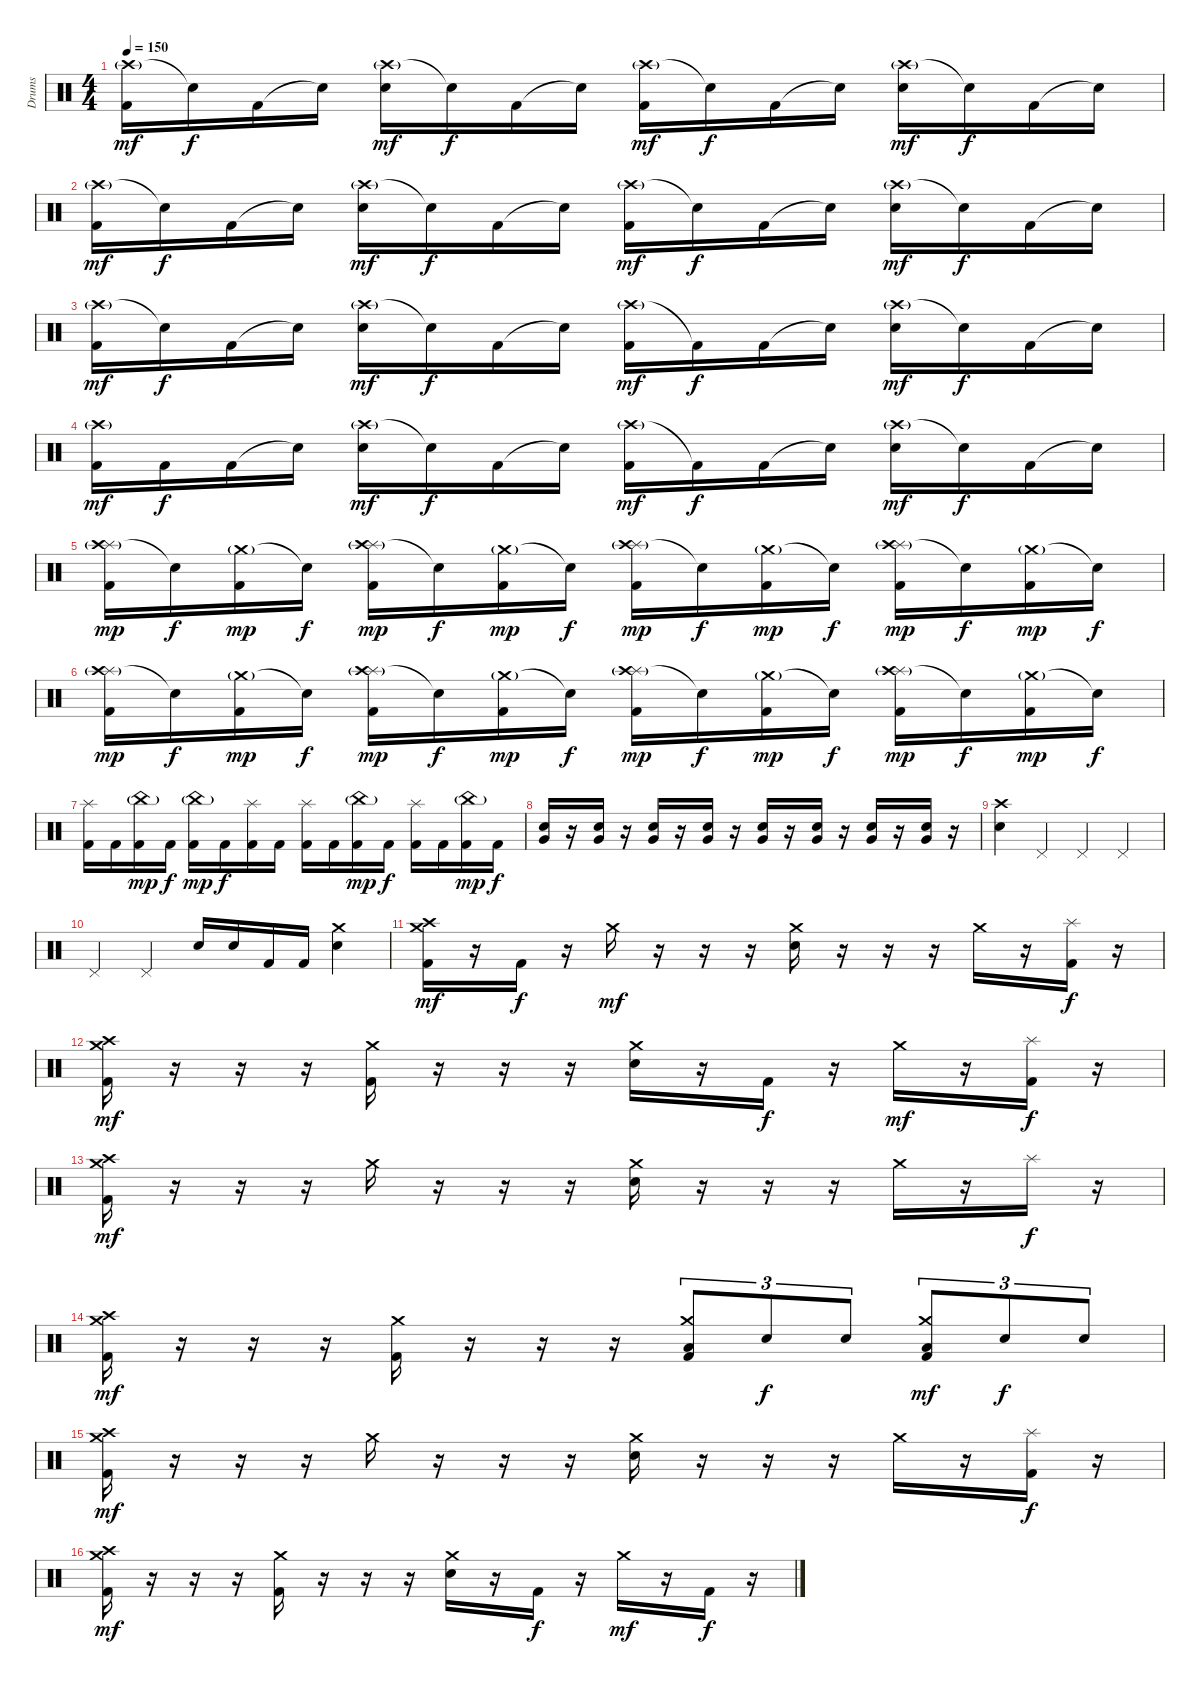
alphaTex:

\track ("Drums" "Drums") {instrument percussion}
\staff {score}
\articulation defaults
\ts (4 4)
\tempo 150
\clef neutral
\ks c
("Crash high (hit)"{g} "Kick (hit) 2").16{dy mf} "Snare (hit)"{t}.16{dy f} "Kick (hit) 2".16 "Snare (hit)"{t}.16 ("Crash high (hit)"{g} "Electric Snare (hit)").16{dy mf} "Snare (hit)"{t}.16{dy f} "Kick (hit) 2".16 "Snare (hit)"{t}.16 ("Crash high (hit)"{g} "Kick (hit) 2").16{dy mf} "Snare (hit)"{t}.16{dy f} "Kick (hit) 2".16 "Snare (hit)"{t}.16 ("Crash high (hit)"{g} "Electric Snare (hit)").16{dy mf} "Snare (hit)"{t}.16{dy f} "Kick (hit) 2".16 "Snare (hit)"{t}.16 |
("Crash high (hit)"{g} "Kick (hit) 2").16{dy mf} "Snare (hit)"{t}.16{dy f} "Kick (hit) 2".16 "Snare (hit)"{t}.16 ("Crash high (hit)"{g} "Electric Snare (hit)").16{dy mf} "Snare (hit)"{t}.16{dy f} "Kick (hit) 2".16 "Snare (hit)"{t}.16 ("Crash high (hit)"{g} "Kick (hit) 2").16{dy mf} "Snare (hit)"{t}.16{dy f} "Kick (hit) 2".16 "Snare (hit)"{t}.16 ("Crash high (hit)"{g} "Electric Snare (hit)").16{dy mf} "Snare (hit)"{t}.16{dy f} "Kick (hit) 2".16 "Snare (hit)"{t}.16 |
("Crash high (hit)"{g} "Kick (hit) 2").16{dy mf} "Snare (hit)"{t}.16{dy f} "Kick (hit) 2".16 "Snare (hit)"{t}.16 ("Crash high (hit)"{g} "Electric Snare (hit)").16{dy mf} "Snare (hit)"{t}.16{dy f} "Kick (hit) 2".16 "Snare (hit)"{t}.16 ("Crash high (hit)"{g} "Kick (hit) 2").16{dy mf} "Kick (hit) 2"{t}.16{dy f} "Kick (hit) 2".16 "Snare (hit)"{t}.16 ("Crash high (hit)"{g} "Electric Snare (hit)").16{dy mf} "Snare (hit)"{t}.16{dy f} "Kick (hit) 2".16 "Snare (hit)"{t}.16 |
("Crash high (hit)"{g} "Kick (hit) 2").16{dy mf} "Kick (hit) 2".16{dy f} "Kick (hit) 2".16 "Snare (hit)"{t}.16 ("Crash high (hit)"{g} "Electric Snare (hit)").16{dy mf} "Snare (hit)"{t}.16{dy f} "Kick (hit) 2".16 "Snare (hit)"{t}.16 ("Crash high (hit)"{g} "Kick (hit) 2").16{dy mf} "Kick (hit) 2"{t}.16{dy f} "Kick (hit) 2".16 "Snare (hit)"{t}.16 ("Crash high (hit)"{g} "Electric Snare (hit)").16{dy mf} "Snare (hit)"{t}.16{dy f} "Kick (hit) 2".16 "Snare (hit)"{t}.16 |
("Splash (hit)"{g} "Crash high (hit)"{g} "Kick (hit) 2").16{dy mp} "Snare (hit)"{t}.16{dy f} ("Crash medium (hit)"{g} "Kick (hit) 2").16{dy mp} "Snare (hit)"{t}.16{dy f} ("Splash (hit)"{g} "Crash high (hit)"{g} "Kick (hit) 2").16{dy mp} "Snare (hit)"{t}.16{dy f} ("Crash medium (hit)"{g} "Kick (hit) 2").16{dy mp} "Snare (hit)"{t}.16{dy f} ("Splash (hit)"{g} "Crash high (hit)"{g} "Kick (hit) 2").16{dy mp} "Snare (hit)"{t}.16{dy f} ("Crash medium (hit)"{g} "Kick (hit) 2").16{dy mp} "Snare (hit)"{t}.16{dy f} ("Splash (hit)"{g} "Crash high (hit)"{g} "Kick (hit) 2").16{dy mp} "Snare (hit)"{t}.16{dy f} ("Crash medium (hit)"{g} "Kick (hit) 2").16{dy mp} "Snare (hit)"{t}.16{dy f} |
("Splash (hit)"{g} "Crash high (hit)"{g} "Kick (hit) 2").16{dy mp} "Snare (hit)"{t}.16{dy f} ("Crash medium (hit)"{g} "Kick (hit) 2").16{dy mp} "Snare (hit)"{t}.16{dy f} ("Splash (hit)"{g} "Crash high (hit)"{g} "Kick (hit) 2").16{dy mp} "Snare (hit)"{t}.16{dy f} ("Crash medium (hit)"{g} "Kick (hit) 2").16{dy mp} "Snare (hit)"{t}.16{dy f} ("Splash (hit)"{g} "Crash high (hit)"{g} "Kick (hit) 2").16{dy mp} "Snare (hit)"{t}.16{dy f} ("Crash medium (hit)"{g} "Kick (hit) 2").16{dy mp} "Snare (hit)"{t}.16{dy f} ("Splash (hit)"{g} "Crash high (hit)"{g} "Kick (hit) 2").16{dy mp} "Snare (hit)"{t}.16{dy f} ("Crash medium (hit)"{g} "Kick (hit) 2").16{dy mp} "Snare (hit)"{t}.16{dy f} |
("Splash (hit)" "Kick (hit) 2").16 "Kick (hit) 2".16 ("China (hit)"{g} "Kick (hit) 2").16{dy mp} "Kick (hit) 2".16{dy f} ("China (hit)"{g} "Kick (hit) 2").16{dy mp} "Kick (hit) 2".16{dy f} ("Splash (hit)" "Kick (hit) 2").16 "Kick (hit) 2".16 ("Splash (hit)" "Kick (hit) 2").16 "Kick (hit) 2".16 ("China (hit)"{g} "Kick (hit) 2").16{dy mp} "Kick (hit) 2".16{dy f} ("Splash (hit)" "Kick (hit) 2").16 "Kick (hit) 2".16 ("China (hit)"{g} "Kick (hit) 2").16{dy mp} "Kick (hit) 2".16{dy f} |
("Very Low Tom (hit)" "Electric Snare (hit)").16 r.16 ("Very Low Tom (hit)" "Electric Snare (hit)").16 r.16 ("Very Low Tom (hit)" "Electric Snare (hit)").16 r.16 ("Very Low Tom (hit)" "Electric Snare (hit)").16 r.16 ("Very Low Tom (hit)" "Electric Snare (hit)").16 r.16 ("Very Low Tom (hit)" "Electric Snare (hit)").16 r.16 ("Very Low Tom (hit)" "Electric Snare (hit)").16 r.16 ("Very Low Tom (hit)" "Electric Snare (hit)").16 r.16 |
("Crash high (hit)" "Electric Snare (hit)").4 "Pedal Hi-Hat (hit)".4 "Pedal Hi-Hat (hit)".4 "Pedal Hi-Hat (hit)".4 |
"Pedal Hi-Hat (hit)".4 "Pedal Hi-Hat (hit)".4 "Electric Snare (hit)".16 "Electric Snare (hit)".16 "Kick (hit) 2".16 "Kick (hit) 2".16 ("Crash medium (hit)" "Electric Snare (hit)").4 |
("Crash high (hit)" "Crash medium (hit)" "Kick (hit) 2").16{dy mf} r.16 "Kick (hit) 2".16{dy f} r.16 "Crash medium (hit)".16{dy mf} r.16 r.16 r.16 ("Crash medium (hit)" "Electric Snare (hit)").16 r.16 r.16 r.16 "Crash medium (hit)".16 r.16 ("Splash (hit)" "Kick (hit) 2").16{dy f} r.16 |
("Crash high (hit)" "Crash medium (hit)" "Kick (hit) 2").16{dy mf} r.16 r.16 r.16 ("Crash medium (hit)" "Kick (hit) 2").16 r.16 r.16 r.16 ("Crash medium (hit)" "Electric Snare (hit)").16 r.16 "Kick (hit) 2".16{dy f} r.16 "Crash medium (hit)".16{dy mf} r.16 ("Splash (hit)" "Kick (hit) 2").16{dy f} r.16 |
("Crash medium (hit)" "Crash high (hit)" "Kick (hit) 2").16{dy mf} r.16 r.16 r.16 "Crash medium (hit)".16 r.16 r.16 r.16 ("Crash medium (hit)" "Electric Snare (hit)").16 r.16 r.16 r.16 "Crash medium (hit)".16 r.16 "Splash (hit)".16{dy f} r.16 |
("Crash medium (hit)" "Crash high (hit)" "Kick (hit) 2").16{dy mf} r.16 r.16 r.16 ("Crash medium (hit)" "Kick (hit) 2").16 r.16 r.16 r.16 ("Crash medium (hit)" "Low Tom (hit)" "Kick (hit) 2").8{tu (3 2)} "Electric Snare (hit)".8{tu (3 2) dy f} "Electric Snare (hit)".8{tu (3 2)} ("Crash medium (hit)" "Low Tom (hit)" "Kick (hit) 2").8{tu (3 2) dy mf} "Electric Snare (hit)".8{tu (3 2) dy f} "Electric Snare (hit)".8{tu (3 2)} |
("Crash medium (hit)" "Crash high (hit)" "Kick (hit) 2").16{dy mf} r.16 r.16 r.16 "Crash medium (hit)".16 r.16 r.16 r.16 ("Crash medium (hit)" "Electric Snare (hit)").16 r.16 r.16 r.16 "Crash medium (hit)".16 r.16 ("Splash (hit)" "Kick (hit) 2").16{dy f} r.16 |
("Crash medium (hit)" "Crash high (hit)" "Kick (hit) 2").16{dy mf} r.16 r.16 r.16 ("Crash medium (hit)" "Kick (hit) 2").16 r.16 r.16 r.16 ("Crash medium (hit)" "Electric Snare (hit)").16 r.16 "Kick (hit) 2".16{dy f} r.16 "Crash medium (hit)".16{dy mf} r.16 "Kick (hit) 2".16{dy f} r.16
